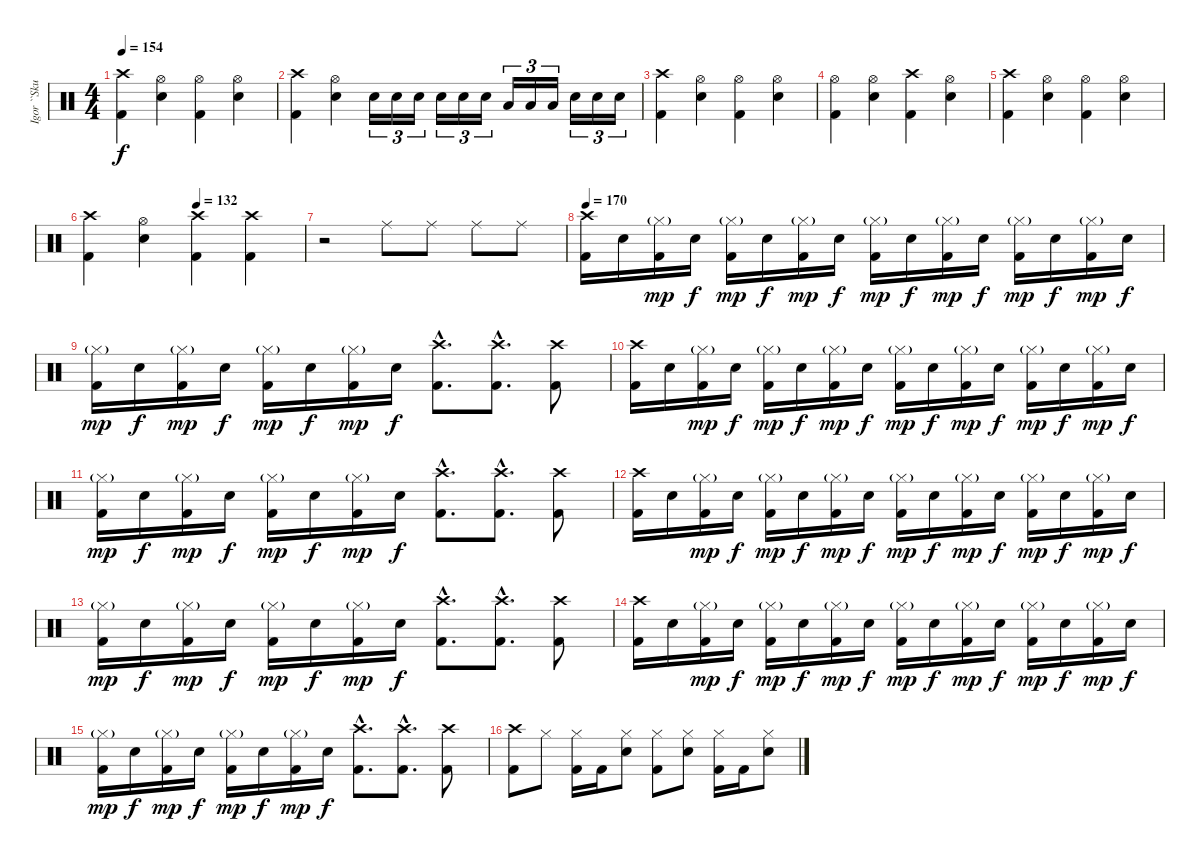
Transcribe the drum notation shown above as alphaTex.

\track ("Igor ``Skullcrusher`` Cavalera" "Igor ``Sku") {instrument percussion}
\staff {score}
\articulation defaults
\ts (4 4)
\tempo 154
\clef neutral
\ks c
("Crash high (hit)" "Kick (hit) 2").4{dy f} ("Hi-Hat (open)" "Electric Snare (hit)").4 ("Hi-Hat (open)" "Kick (hit) 2").4 ("Hi-Hat (open)" "Electric Snare (hit)").4 |
("Crash high (hit)" "Kick (hit) 2").4 ("Hi-Hat (open)" "Electric Snare (hit)").4 "Electric Snare (hit)".16{tu (3 2)} "Electric Snare (hit)".16{tu (3 2)} "Electric Snare (hit)".16{tu (3 2)} "Electric Snare (hit)".16{tu (3 2)} "Electric Snare (hit)".16{tu (3 2)} "Electric Snare (hit)".16{tu (3 2)} "Low Tom (hit)".16{tu (3 2)} "Low Tom (hit)".16{tu (3 2)} "Low Tom (hit)".16{tu (3 2)} "Electric Snare (hit)".16{tu (3 2)} "Electric Snare (hit)".16{tu (3 2)} "Electric Snare (hit)".16{tu (3 2)} |
("Crash high (hit)" "Kick (hit) 2").4 ("Hi-Hat (open)" "Electric Snare (hit)").4 ("Hi-Hat (open)" "Kick (hit) 2").4 ("Hi-Hat (open)" "Electric Snare (hit)").4 |
("Hi-Hat (open)" "Kick (hit) 2").4 ("Hi-Hat (open)" "Electric Snare (hit)").4 ("Crash high (hit)" "Kick (hit) 2").4 ("Hi-Hat (open)" "Electric Snare (hit)").4 |
("Crash high (hit)" "Kick (hit) 2").4 ("Hi-Hat (open)" "Electric Snare (hit)").4 ("Hi-Hat (open)" "Kick (hit) 2").4 ("Hi-Hat (open)" "Electric Snare (hit)").4 |
\tempo (132 0.5)
("Crash high (hit)" "Kick (hit) 2").4 ("Hi-Hat (open)" "Electric Snare (hit)").4 ("Crash high (hit)" "Kick (hit) 2").4 ("Crash high (hit)" "Kick (hit) 2").4 |
r.2 "Ride (middle)".8 "Ride (middle)".8 "Ride (middle)".8 "Ride (middle)".8 |
\tempo 170
("Crash high (hit)" "Kick (hit) 2").16 "Electric Snare (hit)".16 ("Hi-Hat (closed)"{g} "Kick (hit) 2").16{dy mp} "Electric Snare (hit)".16{dy f} ("Hi-Hat (closed)"{g} "Kick (hit) 2").16{dy mp} "Electric Snare (hit)".16{dy f} ("Hi-Hat (closed)"{g} "Kick (hit) 2").16{dy mp} "Electric Snare (hit)".16{dy f} ("Hi-Hat (closed)"{g} "Kick (hit) 2").16{dy mp} "Electric Snare (hit)".16{dy f} ("Hi-Hat (closed)"{g} "Kick (hit) 2").16{dy mp} "Electric Snare (hit)".16{dy f} ("Hi-Hat (closed)"{g} "Kick (hit) 2").16{dy mp} "Electric Snare (hit)".16{dy f} ("Hi-Hat (closed)"{g} "Kick (hit) 2").16{dy mp} "Electric Snare (hit)".16{dy f} |
("Hi-Hat (closed)"{g} "Kick (hit) 2").16{dy mp} "Electric Snare (hit)".16{dy f} ("Hi-Hat (closed)"{g} "Kick (hit) 2").16{dy mp} "Electric Snare (hit)".16{dy f} ("Hi-Hat (closed)"{g} "Kick (hit) 2").16{dy mp} "Electric Snare (hit)".16{dy f} ("Hi-Hat (closed)"{g} "Kick (hit) 2").16{dy mp} "Electric Snare (hit)".16{dy f} ("Crash high (hit)"{hac} "Kick (hit) 2"{hac}).8{d} ("Crash high (hit)"{hac} "Kick (hit) 2"{hac}).8{d} ("Crash high (hit)" "Kick (hit) 2").8 |
("Crash high (hit)" "Kick (hit) 2").16 "Electric Snare (hit)".16 ("Hi-Hat (closed)"{g} "Kick (hit) 2").16{dy mp} "Electric Snare (hit)".16{dy f} ("Hi-Hat (closed)"{g} "Kick (hit) 2").16{dy mp} "Electric Snare (hit)".16{dy f} ("Hi-Hat (closed)"{g} "Kick (hit) 2").16{dy mp} "Electric Snare (hit)".16{dy f} ("Hi-Hat (closed)"{g} "Kick (hit) 2").16{dy mp} "Electric Snare (hit)".16{dy f} ("Hi-Hat (closed)"{g} "Kick (hit) 2").16{dy mp} "Electric Snare (hit)".16{dy f} ("Hi-Hat (closed)"{g} "Kick (hit) 2").16{dy mp} "Electric Snare (hit)".16{dy f} ("Hi-Hat (closed)"{g} "Kick (hit) 2").16{dy mp} "Electric Snare (hit)".16{dy f} |
("Hi-Hat (closed)"{g} "Kick (hit) 2").16{dy mp} "Electric Snare (hit)".16{dy f} ("Hi-Hat (closed)"{g} "Kick (hit) 2").16{dy mp} "Electric Snare (hit)".16{dy f} ("Hi-Hat (closed)"{g} "Kick (hit) 2").16{dy mp} "Electric Snare (hit)".16{dy f} ("Hi-Hat (closed)"{g} "Kick (hit) 2").16{dy mp} "Electric Snare (hit)".16{dy f} ("Crash high (hit)"{hac} "Kick (hit) 2"{hac}).8{d} ("Crash high (hit)"{hac} "Kick (hit) 2"{hac}).8{d} ("Crash high (hit)" "Kick (hit) 2").8 |
("Crash high (hit)" "Kick (hit) 2").16 "Electric Snare (hit)".16 ("Hi-Hat (closed)"{g} "Kick (hit) 2").16{dy mp} "Electric Snare (hit)".16{dy f} ("Hi-Hat (closed)"{g} "Kick (hit) 2").16{dy mp} "Electric Snare (hit)".16{dy f} ("Hi-Hat (closed)"{g} "Kick (hit) 2").16{dy mp} "Electric Snare (hit)".16{dy f} ("Hi-Hat (closed)"{g} "Kick (hit) 2").16{dy mp} "Electric Snare (hit)".16{dy f} ("Hi-Hat (closed)"{g} "Kick (hit) 2").16{dy mp} "Electric Snare (hit)".16{dy f} ("Hi-Hat (closed)"{g} "Kick (hit) 2").16{dy mp} "Electric Snare (hit)".16{dy f} ("Hi-Hat (closed)"{g} "Kick (hit) 2").16{dy mp} "Electric Snare (hit)".16{dy f} |
("Hi-Hat (closed)"{g} "Kick (hit) 2").16{dy mp} "Electric Snare (hit)".16{dy f} ("Hi-Hat (closed)"{g} "Kick (hit) 2").16{dy mp} "Electric Snare (hit)".16{dy f} ("Hi-Hat (closed)"{g} "Kick (hit) 2").16{dy mp} "Electric Snare (hit)".16{dy f} ("Hi-Hat (closed)"{g} "Kick (hit) 2").16{dy mp} "Electric Snare (hit)".16{dy f} ("Crash high (hit)"{hac} "Kick (hit) 2"{hac}).8{d} ("Crash high (hit)"{hac} "Kick (hit) 2"{hac}).8{d} ("Crash high (hit)" "Kick (hit) 2").8 |
("Crash high (hit)" "Kick (hit) 2").16 "Electric Snare (hit)".16 ("Hi-Hat (closed)"{g} "Kick (hit) 2").16{dy mp} "Electric Snare (hit)".16{dy f} ("Hi-Hat (closed)"{g} "Kick (hit) 2").16{dy mp} "Electric Snare (hit)".16{dy f} ("Hi-Hat (closed)"{g} "Kick (hit) 2").16{dy mp} "Electric Snare (hit)".16{dy f} ("Hi-Hat (closed)"{g} "Kick (hit) 2").16{dy mp} "Electric Snare (hit)".16{dy f} ("Hi-Hat (closed)"{g} "Kick (hit) 2").16{dy mp} "Electric Snare (hit)".16{dy f} ("Hi-Hat (closed)"{g} "Kick (hit) 2").16{dy mp} "Electric Snare (hit)".16{dy f} ("Hi-Hat (closed)"{g} "Kick (hit) 2").16{dy mp} "Electric Snare (hit)".16{dy f} |
("Hi-Hat (closed)"{g} "Kick (hit) 2").16{dy mp} "Electric Snare (hit)".16{dy f} ("Hi-Hat (closed)"{g} "Kick (hit) 2").16{dy mp} "Electric Snare (hit)".16{dy f} ("Hi-Hat (closed)"{g} "Kick (hit) 2").16{dy mp} "Electric Snare (hit)".16{dy f} ("Hi-Hat (closed)"{g} "Kick (hit) 2").16{dy mp} "Electric Snare (hit)".16{dy f} ("Crash high (hit)"{hac} "Kick (hit) 2"{hac}).8{d} ("Crash high (hit)"{hac} "Kick (hit) 2"{hac}).8{d} ("Crash high (hit)" "Kick (hit) 2").8 |
("Crash high (hit)" "Kick (hit) 2").8 "Hi-Hat (closed)".8 ("Hi-Hat (closed)" "Kick (hit) 2").16 "Kick (hit) 2".16 ("Hi-Hat (closed)" "Electric Snare (hit)").8 ("Hi-Hat (closed)" "Kick (hit) 2").8 ("Hi-Hat (closed)" "Electric Snare (hit)").8 ("Hi-Hat (closed)" "Kick (hit) 2").16 "Kick (hit) 2".16 ("Hi-Hat (closed)" "Electric Snare (hit)").8
